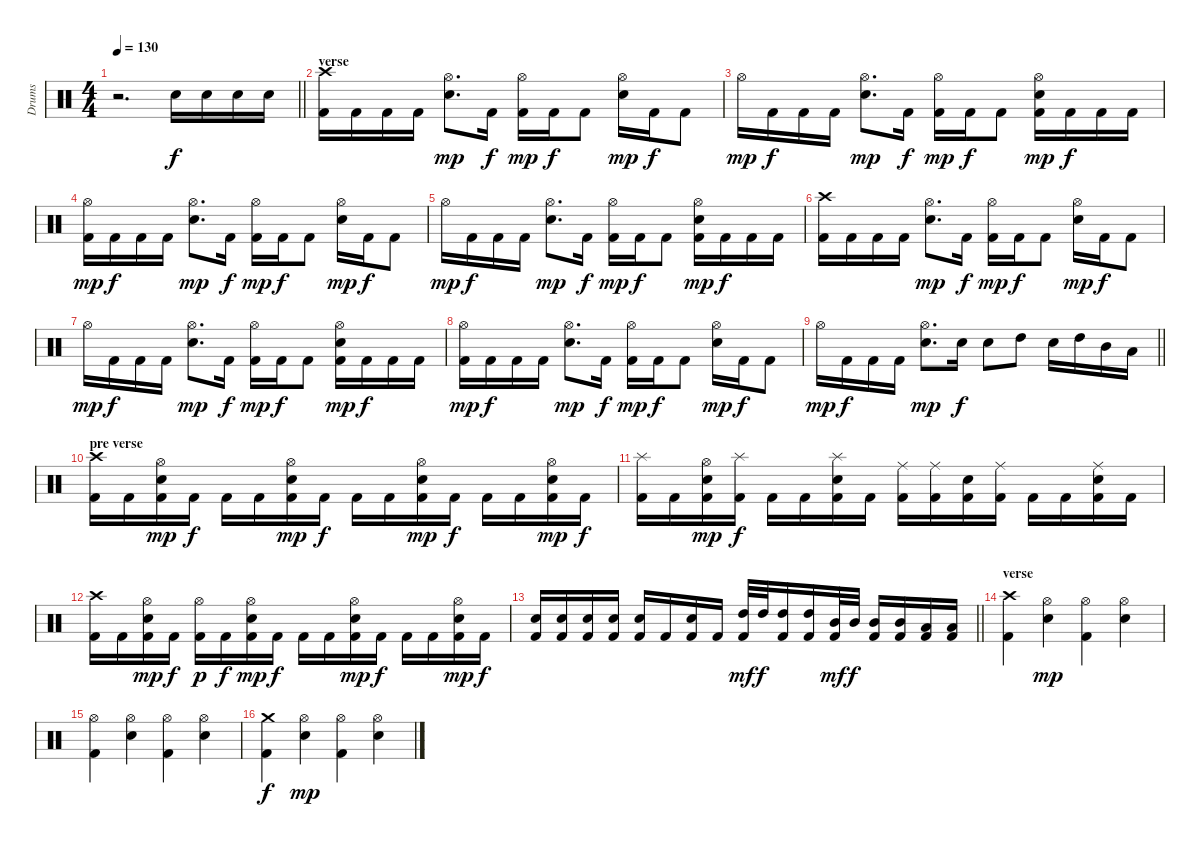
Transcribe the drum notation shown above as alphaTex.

\track ("Drums" "Drums") {instrument percussion}
\staff {score}
\articulation defaults
\ts (4 4)
\tempo 130
\clef neutral
\barLineRight lightlight
\ks c
r.2{d dy mf} "Electric Snare (hit)".16{dy f} "Electric Snare (hit)".16 "Electric Snare (hit)".16 "Electric Snare (hit)".16 |
\section ("" "verse")
("Crash high (hit)" "Kick (hit) 2").16 "Kick (hit) 2".16 "Kick (hit) 2".16 "Kick (hit) 2".16 ("Hi-Hat (open)" "Electric Snare (hit)").8{d dy mp} "Kick (hit) 2".16{dy f} ("Hi-Hat (open)" "Kick (hit) 2").16{dy mp} "Kick (hit) 2".16{dy f} "Kick (hit) 2".8 ("Hi-Hat (open)" "Electric Snare (hit)").16{dy mp} "Kick (hit) 2".16{dy f} "Kick (hit) 2".8 |
"Hi-Hat (open)".16{dy mp} "Kick (hit) 2".16{dy f} "Kick (hit) 2".16 "Kick (hit) 2".16 ("Hi-Hat (open)" "Electric Snare (hit)").8{d dy mp} "Kick (hit) 2".16{dy f} ("Hi-Hat (open)" "Kick (hit) 2").16{dy mp} "Kick (hit) 2".16{dy f} "Kick (hit) 2".8 ("Hi-Hat (open)" "Electric Snare (hit)" "Kick (hit) 2").16{dy mp} "Kick (hit) 2".16{dy f} "Kick (hit) 2".16 "Kick (hit) 2".16 |
("Hi-Hat (open)" "Kick (hit) 2").16{dy mp} "Kick (hit) 2".16{dy f} "Kick (hit) 2".16 "Kick (hit) 2".16 ("Hi-Hat (open)" "Electric Snare (hit)").8{d dy mp} "Kick (hit) 2".16{dy f} ("Hi-Hat (open)" "Kick (hit) 2").16{dy mp} "Kick (hit) 2".16{dy f} "Kick (hit) 2".8 ("Hi-Hat (open)" "Electric Snare (hit)").16{dy mp} "Kick (hit) 2".16{dy f} "Kick (hit) 2".8 |
"Hi-Hat (open)".16{dy mp} "Kick (hit) 2".16{dy f} "Kick (hit) 2".16 "Kick (hit) 2".16 ("Hi-Hat (open)" "Electric Snare (hit)").8{d dy mp} "Kick (hit) 2".16{dy f} ("Hi-Hat (open)" "Kick (hit) 2").16{dy mp} "Kick (hit) 2".16{dy f} "Kick (hit) 2".8 ("Hi-Hat (open)" "Electric Snare (hit)" "Kick (hit) 2").16{dy mp} "Kick (hit) 2".16{dy f} "Kick (hit) 2".16 "Kick (hit) 2".16 |
("Crash high (hit)" "Kick (hit) 2").16 "Kick (hit) 2".16 "Kick (hit) 2".16 "Kick (hit) 2".16 ("Hi-Hat (open)" "Electric Snare (hit)").8{d dy mp} "Kick (hit) 2".16{dy f} ("Hi-Hat (open)" "Kick (hit) 2").16{dy mp} "Kick (hit) 2".16{dy f} "Kick (hit) 2".8 ("Hi-Hat (open)" "Electric Snare (hit)").16{dy mp} "Kick (hit) 2".16{dy f} "Kick (hit) 2".8 |
"Hi-Hat (open)".16{dy mp} "Kick (hit) 2".16{dy f} "Kick (hit) 2".16 "Kick (hit) 2".16 ("Hi-Hat (open)" "Electric Snare (hit)").8{d dy mp} "Kick (hit) 2".16{dy f} ("Hi-Hat (open)" "Kick (hit) 2").16{dy mp} "Kick (hit) 2".16{dy f} "Kick (hit) 2".8 ("Hi-Hat (open)" "Electric Snare (hit)" "Kick (hit) 2").16{dy mp} "Kick (hit) 2".16{dy f} "Kick (hit) 2".16 "Kick (hit) 2".16 |
("Hi-Hat (open)" "Kick (hit) 2").16{dy mp} "Kick (hit) 2".16{dy f} "Kick (hit) 2".16 "Kick (hit) 2".16 ("Hi-Hat (open)" "Electric Snare (hit)").8{d dy mp} "Kick (hit) 2".16{dy f} ("Hi-Hat (open)" "Kick (hit) 2").16{dy mp} "Kick (hit) 2".16{dy f} "Kick (hit) 2".8 ("Hi-Hat (open)" "Electric Snare (hit)").16{dy mp} "Kick (hit) 2".16{dy f} "Kick (hit) 2".8 |
\barLineRight lightlight "Hi-Hat (open)".16{dy mp} "Kick (hit) 2".16{dy f} "Kick (hit) 2".16 "Kick (hit) 2".16
("Hi-Hat (open)" "Electric Snare (hit)").8{d dy mp} "Electric Snare (hit)".16{dy f} "Electric Snare (hit)".8 "High Tom (hit)".8 "Electric Snare (hit)".16 "High Tom (hit)".16 "Mid Tom (hit)".16 "Low Tom (hit)".16 |
\section ("" "pre verse")
("Crash high (hit)" "Kick (hit) 2").16 "Kick (hit) 2".16 ("Hi-Hat (open)" "Electric Snare (hit)" "Kick (hit) 2").16{dy mp} "Kick (hit) 2".16{dy f} "Kick (hit) 2".16 "Kick (hit) 2".16 ("Hi-Hat (open)" "Electric Snare (hit)" "Kick (hit) 2").16{dy mp} "Kick (hit) 2".16{dy f} "Kick (hit) 2".16 "Kick (hit) 2".16 ("Hi-Hat (open)" "Electric Snare (hit)" "Kick (hit) 2").16{dy mp} "Kick (hit) 2".16{dy f} "Kick (hit) 2".16 "Kick (hit) 2".16 ("Hi-Hat (open)" "Electric Snare (hit)" "Kick (hit) 2").16{dy mp} "Kick (hit) 2".16{dy f} |
("Splash (hit)" "Kick (hit) 2").16 "Kick (hit) 2".16 ("Hi-Hat (open)" "Electric Snare (hit)" "Kick (hit) 2").16{dy mp} ("Splash (hit)" "Kick (hit) 2").16{dy f} "Kick (hit) 2".16 "Kick (hit) 2".16 ("Splash (hit)" "Electric Snare (hit)" "Kick (hit) 2").16 "Kick (hit) 2".16 ("Ride (middle)" "Kick (hit) 2").16 ("Ride (middle)" "Kick (hit) 2").16 ("Electric Snare (hit)" "Kick (hit) 2").16 ("Ride (middle)" "Kick (hit) 2").16 "Kick (hit) 2".16 "Kick (hit) 2".16 ("Ride (middle)" "Electric Snare (hit)" "Kick (hit) 2").16 "Kick (hit) 2".16 |
("Crash high (hit)" "Kick (hit) 2").16 "Kick (hit) 2".16 ("Hi-Hat (open)" "Electric Snare (hit)" "Kick (hit) 2").16{dy mp} "Kick (hit) 2".16{dy f} ("Hi-Hat (open)" "Kick (hit) 2").16{dy p} "Kick (hit) 2".16{dy f} ("Hi-Hat (open)" "Electric Snare (hit)" "Kick (hit) 2").16{dy mp} "Kick (hit) 2".16{dy f} "Kick (hit) 2".16 "Kick (hit) 2".16 ("Hi-Hat (open)" "Electric Snare (hit)" "Kick (hit) 2").16{dy mp} "Kick (hit) 2".16{dy f} "Kick (hit) 2".16 "Kick (hit) 2".16 ("Hi-Hat (open)" "Electric Snare (hit)" "Kick (hit) 2").16{dy mp} "Kick (hit) 2".16{dy f} |
\barLineRight lightlight
("Electric Snare (hit)" "Kick (hit) 2").16 ("Electric Snare (hit)" "Kick (hit) 2").16 ("Electric Snare (hit)" "Kick (hit) 2").16 ("Electric Snare (hit)" "Kick (hit) 2").16 ("Electric Snare (hit)" "Kick (hit) 2").16 "Kick (hit) 2".16 ("Electric Snare (hit)" "Kick (hit) 2").16 "Kick (hit) 2".16 ("High Tom (hit)" "Kick (hit) 2").32{dy mf} "High Tom (hit)".32{dy f} ("High Tom (hit)" "Kick (hit) 2").16 ("High Tom (hit)" "Kick (hit) 2").16 ("Mid Tom (hit)" "Kick (hit) 2").32{dy mf} "Mid Tom (hit)".32{dy f} ("Mid Tom (hit)" "Kick (hit) 2").16 ("Mid Tom (hit)" "Kick (hit) 2").16 ("Low Tom (hit)" "Kick (hit) 2").16 ("Low Tom (hit)" "Kick (hit) 2").16 |
\section ("" "verse")
("Crash high (hit)" "Kick (hit) 2").4 ("Hi-Hat (open)" "Electric Snare (hit)").4{dy mp} ("Hi-Hat (open)" "Kick (hit) 2").4 ("Hi-Hat (open)" "Electric Snare (hit)").4 |
("Hi-Hat (open)" "Kick (hit) 2").4 ("Hi-Hat (open)" "Electric Snare (hit)").4 ("Hi-Hat (open)" "Kick (hit) 2").4 ("Hi-Hat (open)" "Electric Snare (hit)").4 |
("Crash medium (hit)" "Kick (hit) 2").4{dy f} ("Hi-Hat (open)" "Electric Snare (hit)").4{dy mp} ("Hi-Hat (open)" "Kick (hit) 2").4 ("Hi-Hat (open)" "Electric Snare (hit)").4
